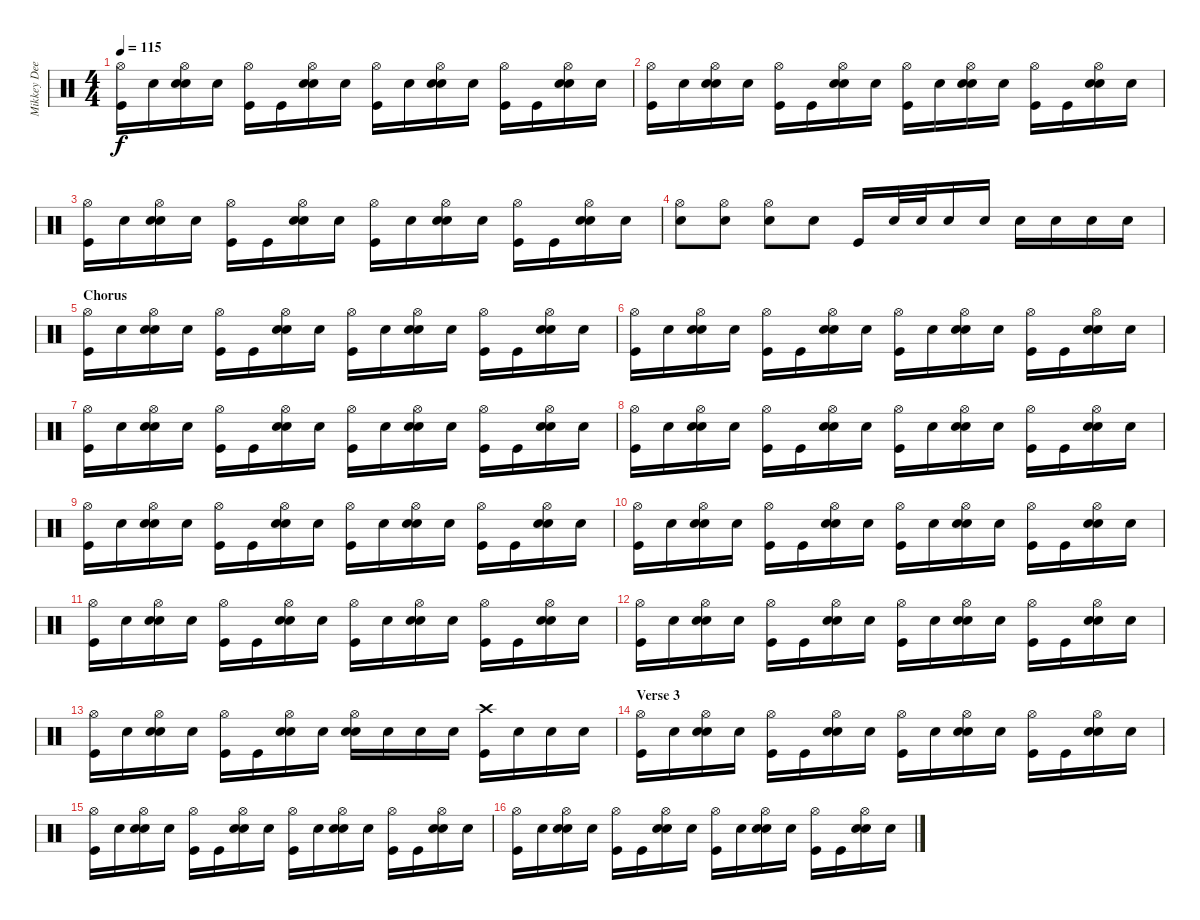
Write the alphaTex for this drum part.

\track ("Mikkey Dee" "Mikkey Dee") {instrument percussion}
\staff {score}
\articulation defaults
\ts (4 4)
\tempo 115
\clef neutral
\ks c
("Hi-Hat (open)" "Kick (hit)").16{dy f} "Snare (hit)".16 ("Hi-Hat (open)" "Electric Snare (hit)" "Snare (hit)").16 "Snare (hit)".16 ("Hi-Hat (open)" "Kick (hit)").16 "Kick (hit)".16 ("Hi-Hat (open)" "Electric Snare (hit)" "Snare (hit)").16 "Snare (hit)".16 ("Hi-Hat (open)" "Kick (hit)").16 "Snare (hit)".16 ("Hi-Hat (open)" "Electric Snare (hit)" "Snare (hit)").16 "Snare (hit)".16 ("Hi-Hat (open)" "Kick (hit)").16 "Kick (hit)".16 ("Hi-Hat (open)" "Electric Snare (hit)" "Snare (hit)").16 "Snare (hit)".16 |
("Hi-Hat (open)" "Kick (hit)").16 "Snare (hit)".16 ("Hi-Hat (open)" "Electric Snare (hit)" "Snare (hit)").16 "Snare (hit)".16 ("Hi-Hat (open)" "Kick (hit)").16 "Kick (hit)".16 ("Hi-Hat (open)" "Electric Snare (hit)" "Snare (hit)").16 "Snare (hit)".16 ("Hi-Hat (open)" "Kick (hit)").16 "Snare (hit)".16 ("Hi-Hat (open)" "Electric Snare (hit)" "Snare (hit)").16 "Snare (hit)".16 ("Hi-Hat (open)" "Kick (hit)").16 "Kick (hit)".16 ("Hi-Hat (open)" "Electric Snare (hit)" "Snare (hit)").16 "Snare (hit)".16 |
("Hi-Hat (open)" "Kick (hit)").16 "Snare (hit)".16 ("Hi-Hat (open)" "Electric Snare (hit)" "Snare (hit)").16 "Snare (hit)".16 ("Hi-Hat (open)" "Kick (hit)").16 "Kick (hit)".16 ("Hi-Hat (open)" "Electric Snare (hit)" "Snare (hit)").16 "Snare (hit)".16 ("Hi-Hat (open)" "Kick (hit)").16 "Snare (hit)".16 ("Hi-Hat (open)" "Electric Snare (hit)" "Snare (hit)").16 "Snare (hit)".16 ("Hi-Hat (open)" "Kick (hit)").16 "Kick (hit)".16 ("Hi-Hat (open)" "Electric Snare (hit)" "Snare (hit)").16 "Snare (hit)".16 |
("Hi-Hat (open)" "Electric Snare (hit)").8 ("Hi-Hat (open)" "Electric Snare (hit)").8 ("Hi-Hat (open)" "Electric Snare (hit)").8 "Snare (hit)".8 "Kick (hit)".16 "Electric Snare (hit)".32 "Electric Snare (hit)".32 "Electric Snare (hit)".16 "Electric Snare (hit)".16 "Electric Snare (hit)".16 "Electric Snare (hit)".16 "Electric Snare (hit)".16 "Electric Snare (hit)".16 |
\section ("" "Chorus")
("Hi-Hat (open)" "Kick (hit)").16 "Snare (hit)".16 ("Hi-Hat (open)" "Electric Snare (hit)" "Snare (hit)").16 "Snare (hit)".16 ("Hi-Hat (open)" "Kick (hit)").16 "Kick (hit)".16 ("Hi-Hat (open)" "Electric Snare (hit)" "Snare (hit)").16 "Snare (hit)".16 ("Hi-Hat (open)" "Kick (hit)").16 "Snare (hit)".16 ("Hi-Hat (open)" "Electric Snare (hit)" "Snare (hit)").16 "Snare (hit)".16 ("Hi-Hat (open)" "Kick (hit)").16 "Kick (hit)".16 ("Hi-Hat (open)" "Electric Snare (hit)" "Snare (hit)").16 "Snare (hit)".16 |
("Hi-Hat (open)" "Kick (hit)").16 "Snare (hit)".16 ("Hi-Hat (open)" "Electric Snare (hit)" "Snare (hit)").16 "Snare (hit)".16 ("Hi-Hat (open)" "Kick (hit)").16 "Kick (hit)".16 ("Hi-Hat (open)" "Electric Snare (hit)" "Snare (hit)").16 "Snare (hit)".16 ("Hi-Hat (open)" "Kick (hit)").16 "Snare (hit)".16 ("Hi-Hat (open)" "Electric Snare (hit)" "Snare (hit)").16 "Snare (hit)".16 ("Hi-Hat (open)" "Kick (hit)").16 "Kick (hit)".16 ("Hi-Hat (open)" "Electric Snare (hit)" "Snare (hit)").16 "Snare (hit)".16 |
("Hi-Hat (open)" "Kick (hit)").16 "Snare (hit)".16 ("Hi-Hat (open)" "Electric Snare (hit)" "Snare (hit)").16 "Snare (hit)".16 ("Hi-Hat (open)" "Kick (hit)").16 "Kick (hit)".16 ("Hi-Hat (open)" "Electric Snare (hit)" "Snare (hit)").16 "Snare (hit)".16 ("Hi-Hat (open)" "Kick (hit)").16 "Snare (hit)".16 ("Hi-Hat (open)" "Electric Snare (hit)" "Snare (hit)").16 "Snare (hit)".16 ("Hi-Hat (open)" "Kick (hit)").16 "Kick (hit)".16 ("Hi-Hat (open)" "Electric Snare (hit)" "Snare (hit)").16 "Snare (hit)".16 |
("Hi-Hat (open)" "Kick (hit)").16 "Snare (hit)".16 ("Hi-Hat (open)" "Electric Snare (hit)" "Snare (hit)").16 "Snare (hit)".16 ("Hi-Hat (open)" "Kick (hit)").16 "Kick (hit)".16 ("Hi-Hat (open)" "Electric Snare (hit)" "Snare (hit)").16 "Snare (hit)".16 ("Hi-Hat (open)" "Kick (hit)").16 "Snare (hit)".16 ("Hi-Hat (open)" "Electric Snare (hit)" "Snare (hit)").16 "Snare (hit)".16 ("Hi-Hat (open)" "Kick (hit)").16 "Kick (hit)".16 ("Hi-Hat (open)" "Electric Snare (hit)" "Snare (hit)").16 "Snare (hit)".16 |
("Hi-Hat (open)" "Kick (hit)").16 "Snare (hit)".16 ("Hi-Hat (open)" "Electric Snare (hit)" "Snare (hit)").16 "Snare (hit)".16 ("Hi-Hat (open)" "Kick (hit)").16 "Kick (hit)".16 ("Hi-Hat (open)" "Electric Snare (hit)" "Snare (hit)").16 "Snare (hit)".16 ("Hi-Hat (open)" "Kick (hit)").16 "Snare (hit)".16 ("Hi-Hat (open)" "Electric Snare (hit)" "Snare (hit)").16 "Snare (hit)".16 ("Hi-Hat (open)" "Kick (hit)").16 "Kick (hit)".16 ("Hi-Hat (open)" "Electric Snare (hit)" "Snare (hit)").16 "Snare (hit)".16 |
("Hi-Hat (open)" "Kick (hit)").16 "Snare (hit)".16 ("Hi-Hat (open)" "Electric Snare (hit)" "Snare (hit)").16 "Snare (hit)".16 ("Hi-Hat (open)" "Kick (hit)").16 "Kick (hit)".16 ("Hi-Hat (open)" "Electric Snare (hit)" "Snare (hit)").16 "Snare (hit)".16 ("Hi-Hat (open)" "Kick (hit)").16 "Snare (hit)".16 ("Hi-Hat (open)" "Electric Snare (hit)" "Snare (hit)").16 "Snare (hit)".16 ("Hi-Hat (open)" "Kick (hit)").16 "Kick (hit)".16 ("Hi-Hat (open)" "Electric Snare (hit)" "Snare (hit)").16 "Snare (hit)".16 |
("Hi-Hat (open)" "Kick (hit)").16 "Snare (hit)".16 ("Hi-Hat (open)" "Electric Snare (hit)" "Snare (hit)").16 "Snare (hit)".16 ("Hi-Hat (open)" "Kick (hit)").16 "Kick (hit)".16 ("Hi-Hat (open)" "Electric Snare (hit)" "Snare (hit)").16 "Snare (hit)".16 ("Hi-Hat (open)" "Kick (hit)").16 "Snare (hit)".16 ("Hi-Hat (open)" "Electric Snare (hit)" "Snare (hit)").16 "Snare (hit)".16 ("Hi-Hat (open)" "Kick (hit)").16 "Kick (hit)".16 ("Hi-Hat (open)" "Electric Snare (hit)" "Snare (hit)").16 "Snare (hit)".16 |
("Hi-Hat (open)" "Kick (hit)").16 "Snare (hit)".16 ("Hi-Hat (open)" "Electric Snare (hit)" "Snare (hit)").16 "Snare (hit)".16 ("Hi-Hat (open)" "Kick (hit)").16 "Kick (hit)".16 ("Hi-Hat (open)" "Electric Snare (hit)" "Snare (hit)").16 "Snare (hit)".16 ("Hi-Hat (open)" "Kick (hit)").16 "Snare (hit)".16 ("Hi-Hat (open)" "Electric Snare (hit)" "Snare (hit)").16 "Snare (hit)".16 ("Hi-Hat (open)" "Kick (hit)").16 "Kick (hit)".16 ("Hi-Hat (open)" "Electric Snare (hit)" "Snare (hit)").16 "Snare (hit)".16 |
("Hi-Hat (open)" "Kick (hit)").16 "Snare (hit)".16 ("Hi-Hat (open)" "Electric Snare (hit)" "Snare (hit)").16 "Snare (hit)".16 ("Hi-Hat (open)" "Kick (hit)").16 "Kick (hit)".16 ("Hi-Hat (open)" "Electric Snare (hit)" "Snare (hit)").16 "Snare (hit)".16 ("Hi-Hat (open)" "Electric Snare (hit)" "Snare (hit)").16 "Snare (hit)".16 "Snare (hit)".16 "Snare (hit)".16 ("Crash high (hit)" "Kick (hit)").16 "Electric Snare (hit)".16 "Electric Snare (hit)".16 "Electric Snare (hit)".16 |
\section ("" "Verse 3")
("Hi-Hat (open)" "Kick (hit)").16 "Snare (hit)".16 ("Hi-Hat (open)" "Electric Snare (hit)" "Snare (hit)").16 "Snare (hit)".16 ("Hi-Hat (open)" "Kick (hit)").16 "Kick (hit)".16 ("Hi-Hat (open)" "Electric Snare (hit)" "Snare (hit)").16 "Snare (hit)".16 ("Hi-Hat (open)" "Kick (hit)").16 "Snare (hit)".16 ("Hi-Hat (open)" "Electric Snare (hit)" "Snare (hit)").16 "Snare (hit)".16 ("Hi-Hat (open)" "Kick (hit)").16 "Kick (hit)".16 ("Hi-Hat (open)" "Electric Snare (hit)" "Snare (hit)").16 "Snare (hit)".16 |
("Hi-Hat (open)" "Kick (hit)").16 "Snare (hit)".16 ("Hi-Hat (open)" "Electric Snare (hit)" "Snare (hit)").16 "Snare (hit)".16 ("Hi-Hat (open)" "Kick (hit)").16 "Kick (hit)".16 ("Hi-Hat (open)" "Electric Snare (hit)" "Snare (hit)").16 "Snare (hit)".16 ("Hi-Hat (open)" "Kick (hit)").16 "Snare (hit)".16 ("Hi-Hat (open)" "Electric Snare (hit)" "Snare (hit)").16 "Snare (hit)".16 ("Hi-Hat (open)" "Kick (hit)").16 "Kick (hit)".16 ("Hi-Hat (open)" "Electric Snare (hit)" "Snare (hit)").16 "Snare (hit)".16 |
("Hi-Hat (open)" "Kick (hit)").16 "Snare (hit)".16 ("Hi-Hat (open)" "Electric Snare (hit)" "Snare (hit)").16 "Snare (hit)".16 ("Hi-Hat (open)" "Kick (hit)").16 "Kick (hit)".16 ("Hi-Hat (open)" "Electric Snare (hit)" "Snare (hit)").16 "Snare (hit)".16 ("Hi-Hat (open)" "Kick (hit)").16 "Snare (hit)".16 ("Hi-Hat (open)" "Electric Snare (hit)" "Snare (hit)").16 "Snare (hit)".16 ("Hi-Hat (open)" "Kick (hit)").16 "Kick (hit)".16 ("Hi-Hat (open)" "Electric Snare (hit)" "Snare (hit)").16 "Snare (hit)".16
